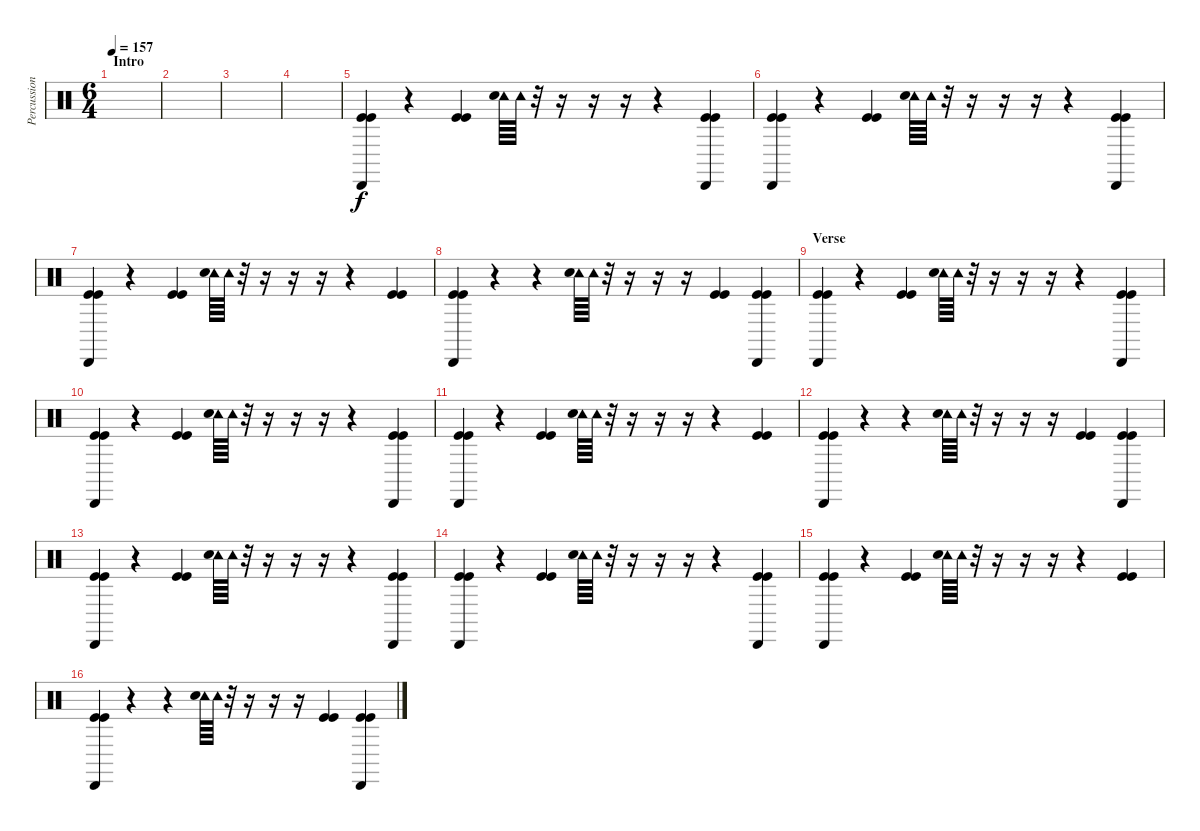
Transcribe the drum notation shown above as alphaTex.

\track ("Percussions" "Percussion") {instrument percussion}
\staff {score}
\articulation defaults
\ts (6 4)
\section ("" "Intro")
\tempo 157
\clef neutral
\ks c
|
|
|
|
("Cabasa (hit)" "Kick (hit)" "Kick (hit)").4 r.4 ("Kick (hit)" "Kick (hit)").4 ("Tambourine (hit)" "Snare (hit) 2").64 "Tambourine (hit)".64 r.32 r.16 r.16 r.16 r.4 ("Cabasa (hit)" "Kick (hit)" "Kick (hit)").4 |
("Cabasa (hit)" "Kick (hit)" "Kick (hit)").4 r.4 ("Kick (hit)" "Kick (hit)").4 ("Tambourine (hit)" "Snare (hit) 2").64 "Tambourine (hit)".64 r.32 r.16 r.16 r.16 r.4 ("Cabasa (hit)" "Kick (hit)" "Kick (hit)").4 |
("Cabasa (hit)" "Kick (hit)" "Kick (hit)").4 r.4 ("Kick (hit)" "Kick (hit)").4 ("Tambourine (hit)" "Snare (hit) 2").64 "Tambourine (hit)".64 r.32 r.16 r.16 r.16 r.4 ("Kick (hit)" "Kick (hit)").4 |
("Cabasa (hit)" "Kick (hit)" "Kick (hit)").4 r.4 r.4 ("Tambourine (hit)" "Snare (hit) 2").64 "Tambourine (hit)".64 r.32 r.16 r.16 r.16 ("Kick (hit)" "Kick (hit)").4 ("Cabasa (hit)" "Kick (hit)" "Kick (hit)").4 |
\section ("" "Verse")
("Cabasa (hit)" "Kick (hit)" "Kick (hit)").4 r.4 ("Kick (hit)" "Kick (hit)").4 ("Tambourine (hit)" "Snare (hit) 2").64 "Tambourine (hit)".64 r.32 r.16 r.16 r.16 r.4 ("Cabasa (hit)" "Kick (hit)" "Kick (hit)").4 |
("Cabasa (hit)" "Kick (hit)" "Kick (hit)").4 r.4 ("Kick (hit)" "Kick (hit)").4 ("Tambourine (hit)" "Snare (hit) 2").64 "Tambourine (hit)".64 r.32 r.16 r.16 r.16 r.4 ("Cabasa (hit)" "Kick (hit)" "Kick (hit)").4 |
("Cabasa (hit)" "Kick (hit)" "Kick (hit)").4 r.4 ("Kick (hit)" "Kick (hit)").4 ("Tambourine (hit)" "Snare (hit) 2").64 "Tambourine (hit)".64 r.32 r.16 r.16 r.16 r.4 ("Kick (hit)" "Kick (hit)").4 |
("Cabasa (hit)" "Kick (hit)" "Kick (hit)").4 r.4 r.4 ("Tambourine (hit)" "Snare (hit) 2").64 "Tambourine (hit)".64 r.32 r.16 r.16 r.16 ("Kick (hit)" "Kick (hit)").4 ("Cabasa (hit)" "Kick (hit)" "Kick (hit)").4 |
("Cabasa (hit)" "Kick (hit)" "Kick (hit)").4 r.4 ("Kick (hit)" "Kick (hit)").4 ("Tambourine (hit)" "Snare (hit) 2").64 "Tambourine (hit)".64 r.32 r.16 r.16 r.16 r.4 ("Cabasa (hit)" "Kick (hit)" "Kick (hit)").4 |
("Cabasa (hit)" "Kick (hit)" "Kick (hit)").4 r.4 ("Kick (hit)" "Kick (hit)").4 ("Tambourine (hit)" "Snare (hit) 2").64 "Tambourine (hit)".64 r.32 r.16 r.16 r.16 r.4 ("Cabasa (hit)" "Kick (hit)" "Kick (hit)").4 |
("Cabasa (hit)" "Kick (hit)" "Kick (hit)").4 r.4 ("Kick (hit)" "Kick (hit)").4 ("Tambourine (hit)" "Snare (hit) 2").64 "Tambourine (hit)".64 r.32 r.16 r.16 r.16 r.4 ("Kick (hit)" "Kick (hit)").4 |
("Cabasa (hit)" "Kick (hit)" "Kick (hit)").4 r.4 r.4 ("Tambourine (hit)" "Snare (hit) 2").64 "Tambourine (hit)".64 r.32 r.16 r.16 r.16 ("Kick (hit)" "Kick (hit)").4 ("Cabasa (hit)" "Kick (hit)" "Kick (hit)").4
